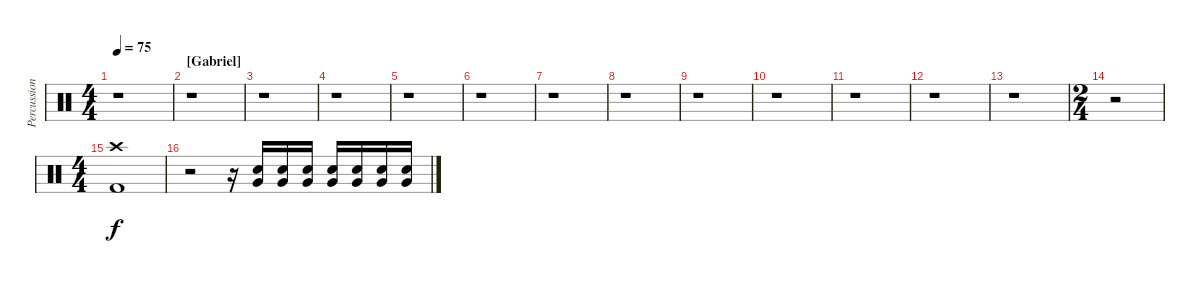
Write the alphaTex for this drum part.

\track ("Percussions" "Percussion") {instrument percussion}
\staff {score}
\articulation defaults
\ts (4 4)
\tempo 75
\clef neutral
\ks c
r.1{dy f} |
\section ("" "[Gabriel]")
r.1 |
r.1 |
r.1 |
r.1 |
r.1 |
r.1 |
r.1 |
r.1 |
r.1 |
r.1 |
r.1 |
r.1 |
\ts (2 4)
r.2 |
\ts (4 4)
("Crash high (hit)" "Kick (hit) 2").1 |
r.2 r.16 ("Very Low Tom (hit)" "Electric Snare (hit)").16 ("Very Low Tom (hit)" "Electric Snare (hit)").16 ("Very Low Tom (hit)" "Electric Snare (hit)").16 ("Very Low Tom (hit)" "Electric Snare (hit)").16 ("Very Low Tom (hit)" "Electric Snare (hit)").16 ("Very Low Tom (hit)" "Electric Snare (hit)").16 ("Very Low Tom (hit)" "Electric Snare (hit)").16
